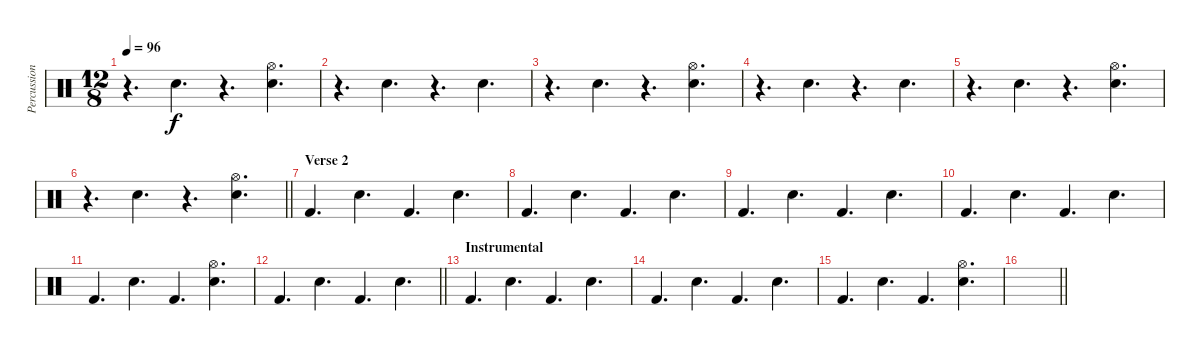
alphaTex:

\track ("Percussion" "Percussion") {instrument percussion}
\staff {score}
\articulation defaults
\ts (12 8)
\tempo 96
\clef neutral
\ks c
r.4{d dy f} "Snare (hit) 2".4{d} r.4{d} ("Hi-Hat (open)" "Snare (hit) 2").4{d} |
r.4{d} "Snare (hit) 2".4{d} r.4{d} "Snare (hit) 2".4{d} |
r.4{d} "Snare (hit) 2".4{d} r.4{d} ("Hi-Hat (open)" "Snare (hit) 2").4{d} |
r.4{d} "Snare (hit) 2".4{d} r.4{d} "Snare (hit) 2".4{d} |
r.4{d} "Snare (hit) 2".4{d} r.4{d} ("Hi-Hat (open)" "Snare (hit) 2").4{d} |
\barLineRight lightlight
r.4{d} "Snare (hit) 2".4{d} r.4{d} ("Hi-Hat (open)" "Snare (hit) 2").4{d} |
\section ("" "Verse 2")
"Kick (hit) 2".4{d} "Snare (hit) 2".4{d} "Kick (hit) 2".4{d} "Snare (hit) 2".4{d} |
"Kick (hit) 2".4{d} "Snare (hit) 2".4{d} "Kick (hit) 2".4{d} "Snare (hit) 2".4{d} |
"Kick (hit) 2".4{d} "Snare (hit) 2".4{d} "Kick (hit) 2".4{d} "Snare (hit) 2".4{d} |
"Kick (hit) 2".4{d} "Snare (hit) 2".4{d} "Kick (hit) 2".4{d} "Snare (hit) 2".4{d} |
"Kick (hit) 2".4{d} "Snare (hit) 2".4{d} "Kick (hit) 2".4{d} ("Hi-Hat (open)" "Snare (hit) 2").4{d} |
\barLineRight lightlight "Kick (hit) 2".4{d} "Snare (hit) 2".4{d} "Kick (hit) 2".4{d} "Snare (hit) 2".4{d}
|
\section ("" "Instrumental")
"Kick (hit) 2".4{d} "Snare (hit) 2".4{d} "Kick (hit) 2".4{d} "Snare (hit) 2".4{d} |
"Kick (hit) 2".4{d} "Snare (hit) 2".4{d} "Kick (hit) 2".4{d} "Snare (hit) 2".4{d} |
"Kick (hit) 2".4{d} "Snare (hit) 2".4{d} "Kick (hit) 2".4{d} ("Hi-Hat (open)" "Snare (hit) 2").4{d} |
\barLineRight lightlight
